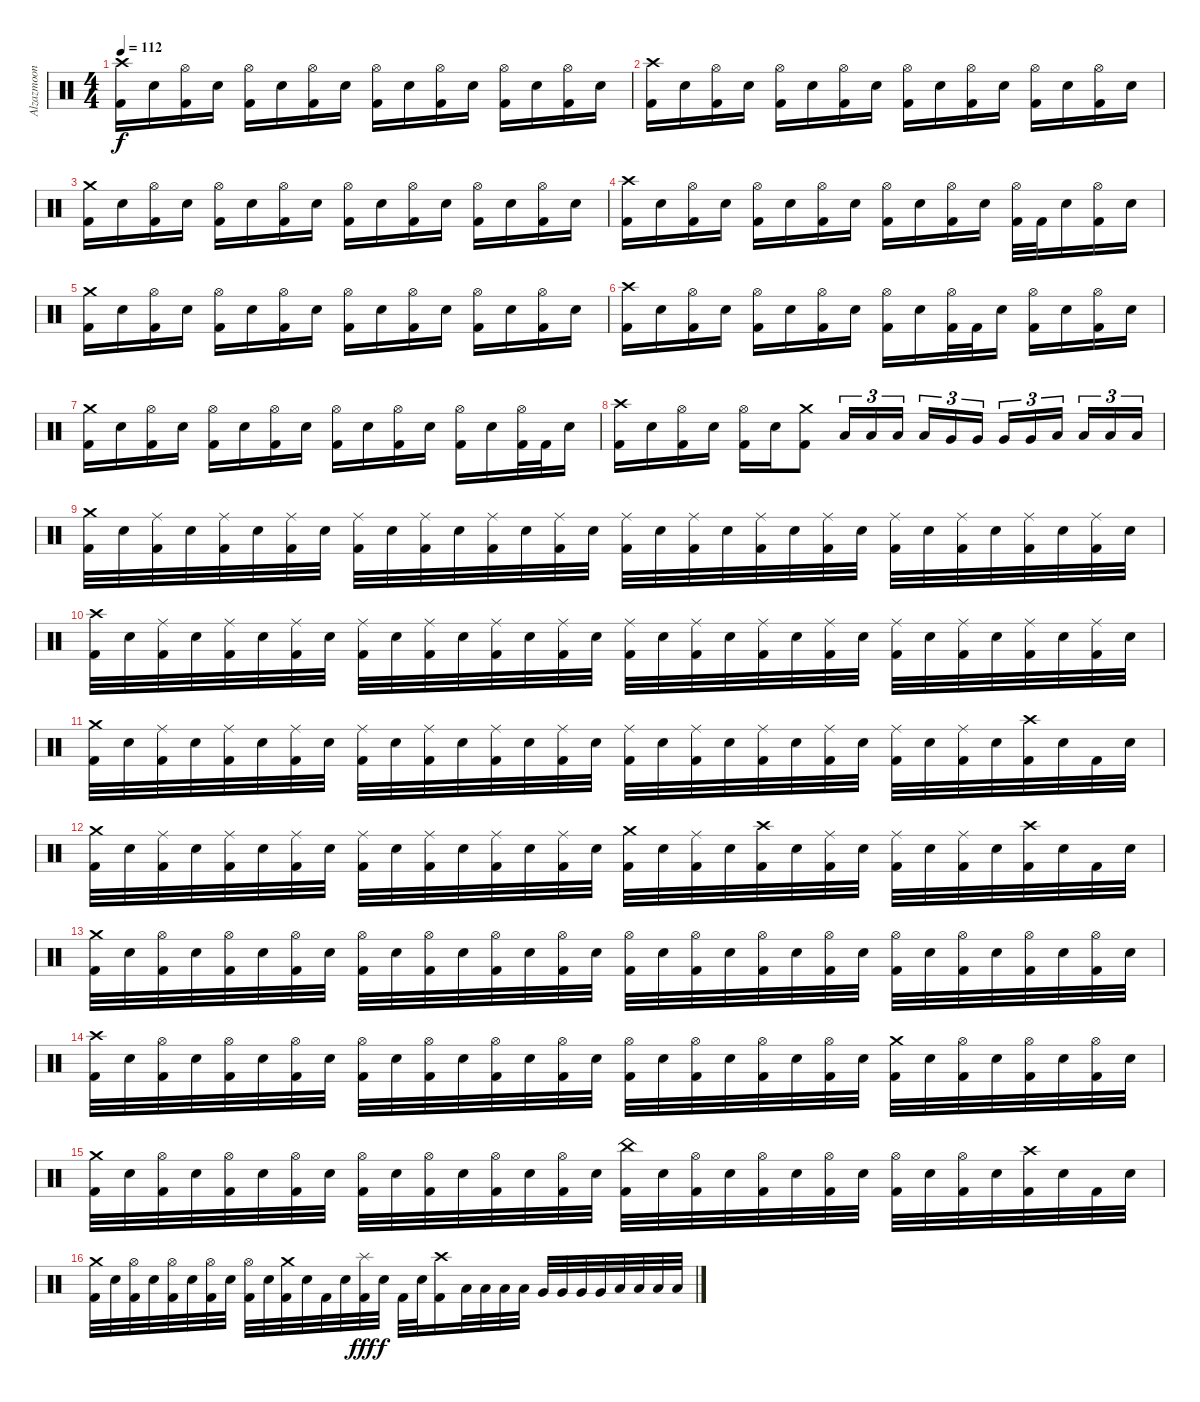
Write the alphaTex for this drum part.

\track ("Alzazmoon" "Alzazmoon") {instrument percussion}
\staff {score}
\articulation defaults
\ts (4 4)
\tempo 112
\clef neutral
\ks c
("Crash high (hit)" "Kick (hit) 2").16{dy f} "Snare (hit) 2".16 ("Hi-Hat (open)" "Kick (hit) 2").16 "Snare (hit) 2".16 ("Hi-Hat (open)" "Kick (hit) 2").16 "Snare (hit) 2".16 ("Hi-Hat (open)" "Kick (hit) 2").16 "Snare (hit) 2".16 ("Hi-Hat (open)" "Kick (hit) 2").16 "Snare (hit) 2".16 ("Hi-Hat (open)" "Kick (hit) 2").16 "Snare (hit) 2".16 ("Hi-Hat (open)" "Kick (hit) 2").16 "Snare (hit) 2".16 ("Hi-Hat (open)" "Kick (hit) 2").16 "Snare (hit) 2".16 |
("Crash high (hit)" "Kick (hit) 2").16 "Snare (hit) 2".16 ("Hi-Hat (open)" "Kick (hit) 2").16 "Snare (hit) 2".16 ("Hi-Hat (open)" "Kick (hit) 2").16 "Snare (hit) 2".16 ("Hi-Hat (open)" "Kick (hit) 2").16 "Snare (hit) 2".16 ("Hi-Hat (open)" "Kick (hit) 2").16 "Snare (hit) 2".16 ("Hi-Hat (open)" "Kick (hit) 2").16 "Snare (hit) 2".16 ("Hi-Hat (open)" "Kick (hit) 2").16 "Snare (hit) 2".16 ("Hi-Hat (open)" "Kick (hit) 2").16 "Snare (hit) 2".16 |
("Crash medium (hit)" "Kick (hit) 2").16 "Snare (hit) 2".16 ("Hi-Hat (open)" "Kick (hit) 2").16 "Snare (hit) 2".16 ("Hi-Hat (open)" "Kick (hit) 2").16 "Snare (hit) 2".16 ("Hi-Hat (open)" "Kick (hit) 2").16 "Snare (hit) 2".16 ("Hi-Hat (open)" "Kick (hit) 2").16 "Snare (hit) 2".16 ("Hi-Hat (open)" "Kick (hit) 2").16 "Snare (hit) 2".16 ("Hi-Hat (open)" "Kick (hit) 2").16 "Snare (hit) 2".16 ("Hi-Hat (open)" "Kick (hit) 2").16 "Snare (hit) 2".16 |
("Crash high (hit)" "Kick (hit) 2").16 "Snare (hit) 2".16 ("Hi-Hat (open)" "Kick (hit) 2").16 "Snare (hit) 2".16 ("Hi-Hat (open)" "Kick (hit) 2").16 "Snare (hit) 2".16 ("Hi-Hat (open)" "Kick (hit) 2").16 "Snare (hit) 2".16 ("Hi-Hat (open)" "Kick (hit) 2").16 "Snare (hit) 2".16 ("Hi-Hat (open)" "Kick (hit) 2").16 "Snare (hit) 2".16 ("Hi-Hat (open)" "Kick (hit) 2").32 "Kick (hit) 2".32 "Snare (hit) 2".16 ("Hi-Hat (open)" "Kick (hit) 2").16 "Snare (hit) 2".16 |
("Crash medium (hit)" "Kick (hit) 2").16 "Snare (hit) 2".16 ("Hi-Hat (open)" "Kick (hit) 2").16 "Snare (hit) 2".16 ("Hi-Hat (open)" "Kick (hit) 2").16 "Snare (hit) 2".16 ("Hi-Hat (open)" "Kick (hit) 2").16 "Snare (hit) 2".16 ("Hi-Hat (open)" "Kick (hit) 2").16 "Snare (hit) 2".16 ("Hi-Hat (open)" "Kick (hit) 2").16 "Snare (hit) 2".16 ("Hi-Hat (open)" "Kick (hit) 2").16 "Snare (hit) 2".16 ("Hi-Hat (open)" "Kick (hit) 2").16 "Snare (hit) 2".16 |
("Crash high (hit)" "Kick (hit) 2").16 "Snare (hit) 2".16 ("Hi-Hat (open)" "Kick (hit) 2").16 "Snare (hit) 2".16 ("Hi-Hat (open)" "Kick (hit) 2").16 "Snare (hit) 2".16 ("Hi-Hat (open)" "Kick (hit) 2").16 "Snare (hit) 2".16 ("Hi-Hat (open)" "Kick (hit) 2").16 "Snare (hit) 2".16 ("Hi-Hat (open)" "Kick (hit) 2").32 "Kick (hit) 2".32 "Snare (hit) 2".16 ("Hi-Hat (open)" "Kick (hit) 2").16 "Snare (hit) 2".16 ("Hi-Hat (open)" "Kick (hit) 2").16 "Snare (hit) 2".16 |
("Crash medium (hit)" "Kick (hit) 2").16 "Snare (hit) 2".16 ("Hi-Hat (open)" "Kick (hit) 2").16 "Snare (hit) 2".16 ("Hi-Hat (open)" "Kick (hit) 2").16 "Snare (hit) 2".16 ("Hi-Hat (open)" "Kick (hit) 2").16 "Snare (hit) 2".16 ("Hi-Hat (open)" "Kick (hit) 2").16 "Snare (hit) 2".16 ("Hi-Hat (open)" "Kick (hit) 2").16 "Snare (hit) 2".16 ("Hi-Hat (open)" "Kick (hit) 2").16 "Snare (hit) 2".16 ("Hi-Hat (open)" "Kick (hit) 2").32 "Kick (hit) 2".32 "Snare (hit) 2".16 |
("Crash high (hit)" "Kick (hit) 2").16 "Snare (hit) 2".16 ("Hi-Hat (open)" "Kick (hit) 2").16 "Snare (hit) 2".16 ("Hi-Hat (open)" "Kick (hit) 2").16 "Snare (hit) 2".16 ("Crash medium (hit)" "Kick (hit) 2").8 "Low Tom (hit)".16{tu (3 2)} "Low Tom (hit)".16{tu (3 2)} "Low Tom (hit)".16{tu (3 2) beam splitsecondary} "Low Tom (hit)".16{tu (3 2)} "Very Low Tom (hit)".16{tu (3 2)} "Very Low Tom (hit)".16{tu (3 2)} "Very Low Tom (hit)".16{tu (3 2)} "Very Low Tom (hit)".16{tu (3 2)} "Low Floor Tom (hit)".16{tu (3 2) beam splitsecondary} "Low Floor Tom (hit)".16{tu (3 2)} "Low Floor Tom (hit)".16{tu (3 2)} "Low Floor Tom (hit)".16{tu (3 2)} |
("Crash medium (hit)" "Kick (hit) 2").32 "Snare (hit) 2".32 ("Ride (middle)" "Kick (hit) 2").32 "Snare (hit) 2".32 ("Ride (middle)" "Kick (hit) 2").32 "Snare (hit) 2".32 ("Ride (middle)" "Kick (hit) 2").32 "Snare (hit) 2".32 ("Ride (middle)" "Kick (hit) 2").32 "Snare (hit) 2".32 ("Ride (middle)" "Kick (hit) 2").32 "Snare (hit) 2".32 ("Ride (middle)" "Kick (hit) 2").32 "Snare (hit) 2".32 ("Ride (middle)" "Kick (hit) 2").32 "Snare (hit) 2".32 ("Ride (middle)" "Kick (hit) 2").32 "Snare (hit) 2".32 ("Ride (middle)" "Kick (hit) 2").32 "Snare (hit) 2".32 ("Ride (middle)" "Kick (hit) 2").32 "Snare (hit) 2".32 ("Ride (middle)" "Kick (hit) 2").32 "Snare (hit) 2".32 ("Ride (middle)" "Kick (hit) 2").32 "Snare (hit) 2".32 ("Ride (middle)" "Kick (hit) 2").32 "Snare (hit) 2".32 ("Ride (middle)" "Kick (hit) 2").32 "Snare (hit) 2".32 ("Ride (middle)" "Kick (hit) 2").32 "Snare (hit) 2".32 |
("Crash high (hit)" "Kick (hit) 2").32 "Snare (hit) 2".32 ("Ride (middle)" "Kick (hit) 2").32 "Snare (hit) 2".32 ("Ride (middle)" "Kick (hit) 2").32 "Snare (hit) 2".32 ("Ride (middle)" "Kick (hit) 2").32 "Snare (hit) 2".32 ("Ride (middle)" "Kick (hit) 2").32 "Snare (hit) 2".32 ("Ride (middle)" "Kick (hit) 2").32 "Snare (hit) 2".32 ("Ride (middle)" "Kick (hit) 2").32 "Snare (hit) 2".32 ("Ride (middle)" "Kick (hit) 2").32 "Snare (hit) 2".32 ("Ride (middle)" "Kick (hit) 2").32 "Snare (hit) 2".32 ("Ride (middle)" "Kick (hit) 2").32 "Snare (hit) 2".32 ("Ride (middle)" "Kick (hit) 2").32 "Snare (hit) 2".32 ("Ride (middle)" "Kick (hit) 2").32 "Snare (hit) 2".32 ("Ride (middle)" "Kick (hit) 2").32 "Snare (hit) 2".32 ("Ride (middle)" "Kick (hit) 2").32 "Snare (hit) 2".32 ("Ride (middle)" "Kick (hit) 2").32 "Snare (hit) 2".32 ("Ride (middle)" "Kick (hit) 2").32 "Snare (hit) 2".32 |
("Crash medium (hit)" "Kick (hit) 2").32 "Snare (hit) 2".32 ("Ride (middle)" "Kick (hit) 2").32 "Snare (hit) 2".32 ("Ride (middle)" "Kick (hit) 2").32 "Snare (hit) 2".32 ("Ride (middle)" "Kick (hit) 2").32 "Snare (hit) 2".32 ("Ride (middle)" "Kick (hit) 2").32 "Snare (hit) 2".32 ("Ride (middle)" "Kick (hit) 2").32 "Snare (hit) 2".32 ("Ride (middle)" "Kick (hit) 2").32 "Snare (hit) 2".32 ("Ride (middle)" "Kick (hit) 2").32 "Snare (hit) 2".32 ("Ride (middle)" "Kick (hit) 2").32 "Snare (hit) 2".32 ("Ride (middle)" "Kick (hit) 2").32 "Snare (hit) 2".32 ("Ride (middle)" "Kick (hit) 2").32 "Snare (hit) 2".32 ("Ride (middle)" "Kick (hit) 2").32 "Snare (hit) 2".32 ("Ride (middle)" "Kick (hit) 2").32 "Snare (hit) 2".32 ("Ride (middle)" "Kick (hit) 2").32 "Snare (hit) 2".32 ("Crash high (hit)" "Kick (hit) 2").32 "Snare (hit) 2".32 "Kick (hit) 2".32 "Snare (hit) 2".32 |
("Crash medium (hit)" "Kick (hit) 2").32 "Snare (hit) 2".32 ("Ride (middle)" "Kick (hit) 2").32 "Snare (hit) 2".32 ("Ride (middle)" "Kick (hit) 2").32 "Snare (hit) 2".32 ("Ride (middle)" "Kick (hit) 2").32 "Snare (hit) 2".32 ("Ride (middle)" "Kick (hit) 2").32 "Snare (hit) 2".32 ("Ride (middle)" "Kick (hit) 2").32 "Snare (hit) 2".32 ("Ride (middle)" "Kick (hit) 2").32 "Snare (hit) 2".32 ("Ride (middle)" "Kick (hit) 2").32 "Snare (hit) 2".32 ("Crash medium (hit)" "Kick (hit) 2").32 "Snare (hit) 2".32 ("Ride (middle)" "Kick (hit) 2").32 "Snare (hit) 2".32 ("Crash high (hit)" "Kick (hit) 2").32 "Snare (hit) 2".32 ("Ride (middle)" "Kick (hit) 2").32 "Snare (hit) 2".32 ("Ride (middle)" "Kick (hit) 2").32 "Snare (hit) 2".32 ("Ride (middle)" "Kick (hit) 2").32 "Snare (hit) 2".32 ("Crash high (hit)" "Kick (hit) 2").32 "Snare (hit) 2".32 "Kick (hit) 2".32 "Snare (hit) 2".32 |
("Crash medium (hit)" "Kick (hit) 2").32 "Snare (hit) 2".32 ("Hi-Hat (open)" "Kick (hit) 2").32 "Snare (hit) 2".32 ("Hi-Hat (open)" "Kick (hit) 2").32 "Snare (hit) 2".32 ("Hi-Hat (open)" "Kick (hit) 2").32 "Snare (hit) 2".32 ("Hi-Hat (open)" "Kick (hit) 2").32 "Snare (hit) 2".32 ("Hi-Hat (open)" "Kick (hit) 2").32 "Snare (hit) 2".32 ("Hi-Hat (open)" "Kick (hit) 2").32 "Snare (hit) 2".32 ("Hi-Hat (open)" "Kick (hit) 2").32 "Snare (hit) 2".32 ("Hi-Hat (open)" "Kick (hit) 2").32 "Snare (hit) 2".32 ("Hi-Hat (open)" "Kick (hit) 2").32 "Snare (hit) 2".32 ("Hi-Hat (open)" "Kick (hit) 2").32 "Snare (hit) 2".32 ("Hi-Hat (open)" "Kick (hit) 2").32 "Snare (hit) 2".32 ("Hi-Hat (open)" "Kick (hit) 2").32 "Snare (hit) 2".32 ("Hi-Hat (open)" "Kick (hit) 2").32 "Snare (hit) 2".32 ("Hi-Hat (open)" "Kick (hit) 2").32 "Snare (hit) 2".32 ("Hi-Hat (open)" "Kick (hit) 2").32 "Snare (hit) 2".32 |
("Crash high (hit)" "Kick (hit) 2").32 "Snare (hit) 2".32 ("Hi-Hat (open)" "Kick (hit) 2").32 "Snare (hit) 2".32 ("Hi-Hat (open)" "Kick (hit) 2").32 "Snare (hit) 2".32 ("Hi-Hat (open)" "Kick (hit) 2").32 "Snare (hit) 2".32 ("Hi-Hat (open)" "Kick (hit) 2").32 "Snare (hit) 2".32 ("Hi-Hat (open)" "Kick (hit) 2").32 "Snare (hit) 2".32 ("Hi-Hat (open)" "Kick (hit) 2").32 "Snare (hit) 2".32 ("Hi-Hat (open)" "Kick (hit) 2").32 "Snare (hit) 2".32 ("Hi-Hat (open)" "Kick (hit) 2").32 "Snare (hit) 2".32 ("Hi-Hat (open)" "Kick (hit) 2").32 "Snare (hit) 2".32 ("Hi-Hat (open)" "Kick (hit) 2").32 "Snare (hit) 2".32 ("Hi-Hat (open)" "Kick (hit) 2").32 "Snare (hit) 2".32 ("Crash medium (hit)" "Kick (hit) 2").32 "Snare (hit) 2".32 ("Hi-Hat (open)" "Kick (hit) 2").32 "Snare (hit) 2".32 ("Hi-Hat (open)" "Kick (hit) 2").32 "Snare (hit) 2".32 ("Hi-Hat (open)" "Kick (hit) 2").32 "Snare (hit) 2".32 |
("Crash medium (hit)" "Kick (hit) 2").32 "Snare (hit) 2".32 ("Hi-Hat (open)" "Kick (hit) 2").32 "Snare (hit) 2".32 ("Hi-Hat (open)" "Kick (hit) 2").32 "Snare (hit) 2".32 ("Hi-Hat (open)" "Kick (hit) 2").32 "Snare (hit) 2".32 ("Hi-Hat (open)" "Kick (hit) 2").32 "Snare (hit) 2".32 ("Hi-Hat (open)" "Kick (hit) 2").32 "Snare (hit) 2".32 ("Hi-Hat (open)" "Kick (hit) 2").32 "Snare (hit) 2".32 ("Hi-Hat (open)" "Kick (hit) 2").32 "Snare (hit) 2".32 ("China (hit)" "Kick (hit) 2").32 "Snare (hit) 2".32 ("Hi-Hat (open)" "Kick (hit) 2").32 "Snare (hit) 2".32 ("Hi-Hat (open)" "Kick (hit) 2").32 "Snare (hit) 2".32 ("Hi-Hat (open)" "Kick (hit) 2").32 "Snare (hit) 2".32 ("Hi-Hat (open)" "Kick (hit) 2").32 "Snare (hit) 2".32 ("Hi-Hat (open)" "Kick (hit) 2").32 "Snare (hit) 2".32 ("Crash high (hit)" "Kick (hit) 2").32 "Snare (hit) 2".32 "Kick (hit) 2".32 "Snare (hit) 2".32 |
("Crash medium (hit)" "Kick (hit) 2").32 "Snare (hit) 2".32 ("Hi-Hat (open)" "Kick (hit) 2").32 "Snare (hit) 2".32 ("Hi-Hat (open)" "Kick (hit) 2").32 "Snare (hit) 2".32 ("Hi-Hat (open)" "Kick (hit) 2").32 "Snare (hit) 2".32 ("Hi-Hat (open)" "Kick (hit) 2").32 "Snare (hit) 2".32 ("Crash medium (hit)" "Kick (hit) 2").32 "Snare (hit) 2".32 "Kick (hit) 2".32 "Snare (hit) 2".32 ("Splash (hit)" "Kick (hit) 2").32{dy fff} "Snare (hit) 2".32{dy f} "Kick (hit) 2".32 "Snare (hit) 2".32 ("Crash high (hit)" "Kick (hit) 2").16 "Low Tom (hit)".32 "Low Tom (hit)".32 "Low Tom (hit)".32 "Low Tom (hit)".32 "Very Low Tom (hit)".32 "Very Low Tom (hit)".32 "Very Low Tom (hit)".32 "Very Low Tom (hit)".32 "Low Floor Tom (hit)".32 "Low Floor Tom (hit)".32 "Low Floor Tom (hit)".32 "Low Floor Tom (hit)".32
